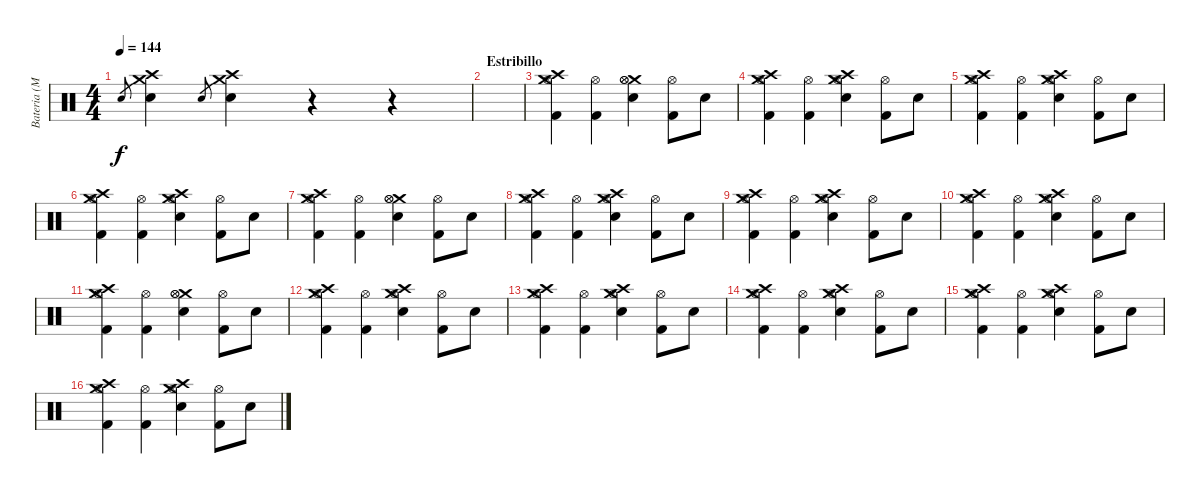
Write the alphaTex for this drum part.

\track ("Bateria (Matt)" "Bateria (M") {instrument percussion}
\staff {score}
\articulation defaults
\ts (4 4)
\tempo 144
\clef neutral
\ks c "Snare (hit) 2".8{gr dy f}
("Crash medium (hit)" "Crash high (hit)" "Snare (hit) 2").4 "Snare (hit) 2".8{gr} ("Crash medium (hit)" "Crash high (hit)" "Snare (hit) 2").4 r.4 r.4 |
\section ("" "Estribillo")
|
("Crash medium (hit)" "Crash high (hit)" "Hi-Hat (open)" "Kick (hit) 2").4 ("Hi-Hat (open)" "Kick (hit) 2").4 ("Crash medium (hit)" "Hi-Hat (open)" "Hi-Hat (open)" "Snare (hit) 2").4 ("Hi-Hat (open)" "Kick (hit) 2").8 "Snare (hit) 2".8 |
("Crash medium (hit)" "Crash high (hit)" "Hi-Hat (open)" "Kick (hit) 2").4 ("Hi-Hat (open)" "Kick (hit) 2").4 ("Crash medium (hit)" "Crash high (hit)" "Hi-Hat (open)" "Snare (hit) 2").4 ("Hi-Hat (open)" "Kick (hit) 2").8 "Snare (hit) 2".8 |
("Crash medium (hit)" "Crash high (hit)" "Hi-Hat (open)" "Kick (hit) 2").4 ("Hi-Hat (open)" "Kick (hit) 2").4 ("Crash medium (hit)" "Crash high (hit)" "Hi-Hat (open)" "Snare (hit) 2").4 ("Hi-Hat (open)" "Kick (hit) 2").8 "Snare (hit) 2".8 |
("Crash medium (hit)" "Crash high (hit)" "Hi-Hat (open)" "Kick (hit) 2").4 ("Hi-Hat (open)" "Kick (hit) 2").4 ("Crash medium (hit)" "Crash high (hit)" "Hi-Hat (open)" "Snare (hit) 2").4 ("Hi-Hat (open)" "Kick (hit) 2").8 "Snare (hit) 2".8 |
("Crash medium (hit)" "Crash high (hit)" "Hi-Hat (open)" "Kick (hit) 2").4 ("Hi-Hat (open)" "Kick (hit) 2").4 ("Crash medium (hit)" "Hi-Hat (open)" "Hi-Hat (open)" "Snare (hit) 2").4 ("Hi-Hat (open)" "Kick (hit) 2").8 "Snare (hit) 2".8 |
("Crash medium (hit)" "Crash high (hit)" "Hi-Hat (open)" "Kick (hit) 2").4 ("Hi-Hat (open)" "Kick (hit) 2").4 ("Crash medium (hit)" "Crash high (hit)" "Hi-Hat (open)" "Snare (hit) 2").4 ("Hi-Hat (open)" "Kick (hit) 2").8 "Snare (hit) 2".8 |
("Crash medium (hit)" "Crash high (hit)" "Hi-Hat (open)" "Kick (hit) 2").4 ("Hi-Hat (open)" "Kick (hit) 2").4 ("Crash medium (hit)" "Crash high (hit)" "Hi-Hat (open)" "Snare (hit) 2").4 ("Hi-Hat (open)" "Kick (hit) 2").8 "Snare (hit) 2".8 |
("Crash medium (hit)" "Crash high (hit)" "Hi-Hat (open)" "Kick (hit) 2").4 ("Hi-Hat (open)" "Kick (hit) 2").4 ("Crash medium (hit)" "Crash high (hit)" "Hi-Hat (open)" "Snare (hit) 2").4 ("Hi-Hat (open)" "Kick (hit) 2").8 "Snare (hit) 2".8 |
("Crash medium (hit)" "Crash high (hit)" "Hi-Hat (open)" "Kick (hit) 2").4 ("Hi-Hat (open)" "Kick (hit) 2").4 ("Crash medium (hit)" "Hi-Hat (open)" "Hi-Hat (open)" "Snare (hit) 2").4 ("Hi-Hat (open)" "Kick (hit) 2").8 "Snare (hit) 2".8 |
("Crash medium (hit)" "Crash high (hit)" "Hi-Hat (open)" "Kick (hit) 2").4 ("Hi-Hat (open)" "Kick (hit) 2").4 ("Crash medium (hit)" "Crash high (hit)" "Hi-Hat (open)" "Snare (hit) 2").4 ("Hi-Hat (open)" "Kick (hit) 2").8 "Snare (hit) 2".8 |
("Crash medium (hit)" "Crash high (hit)" "Hi-Hat (open)" "Kick (hit) 2").4 ("Hi-Hat (open)" "Kick (hit) 2").4 ("Crash medium (hit)" "Crash high (hit)" "Hi-Hat (open)" "Snare (hit) 2").4 ("Hi-Hat (open)" "Kick (hit) 2").8 "Snare (hit) 2".8 |
("Crash medium (hit)" "Crash high (hit)" "Hi-Hat (open)" "Kick (hit) 2").4 ("Hi-Hat (open)" "Kick (hit) 2").4 ("Crash medium (hit)" "Crash high (hit)" "Hi-Hat (open)" "Snare (hit) 2").4 ("Hi-Hat (open)" "Kick (hit) 2").8 "Snare (hit) 2".8 |
("Crash medium (hit)" "Crash high (hit)" "Hi-Hat (open)" "Kick (hit) 2").4 ("Hi-Hat (open)" "Kick (hit) 2").4 ("Crash medium (hit)" "Crash high (hit)" "Hi-Hat (open)" "Snare (hit) 2").4 ("Hi-Hat (open)" "Kick (hit) 2").8 "Snare (hit) 2".8 |
("Crash medium (hit)" "Crash high (hit)" "Hi-Hat (open)" "Kick (hit) 2").4 ("Hi-Hat (open)" "Kick (hit) 2").4 ("Crash medium (hit)" "Crash high (hit)" "Hi-Hat (open)" "Snare (hit) 2").4 ("Hi-Hat (open)" "Kick (hit) 2").8 "Snare (hit) 2".8
